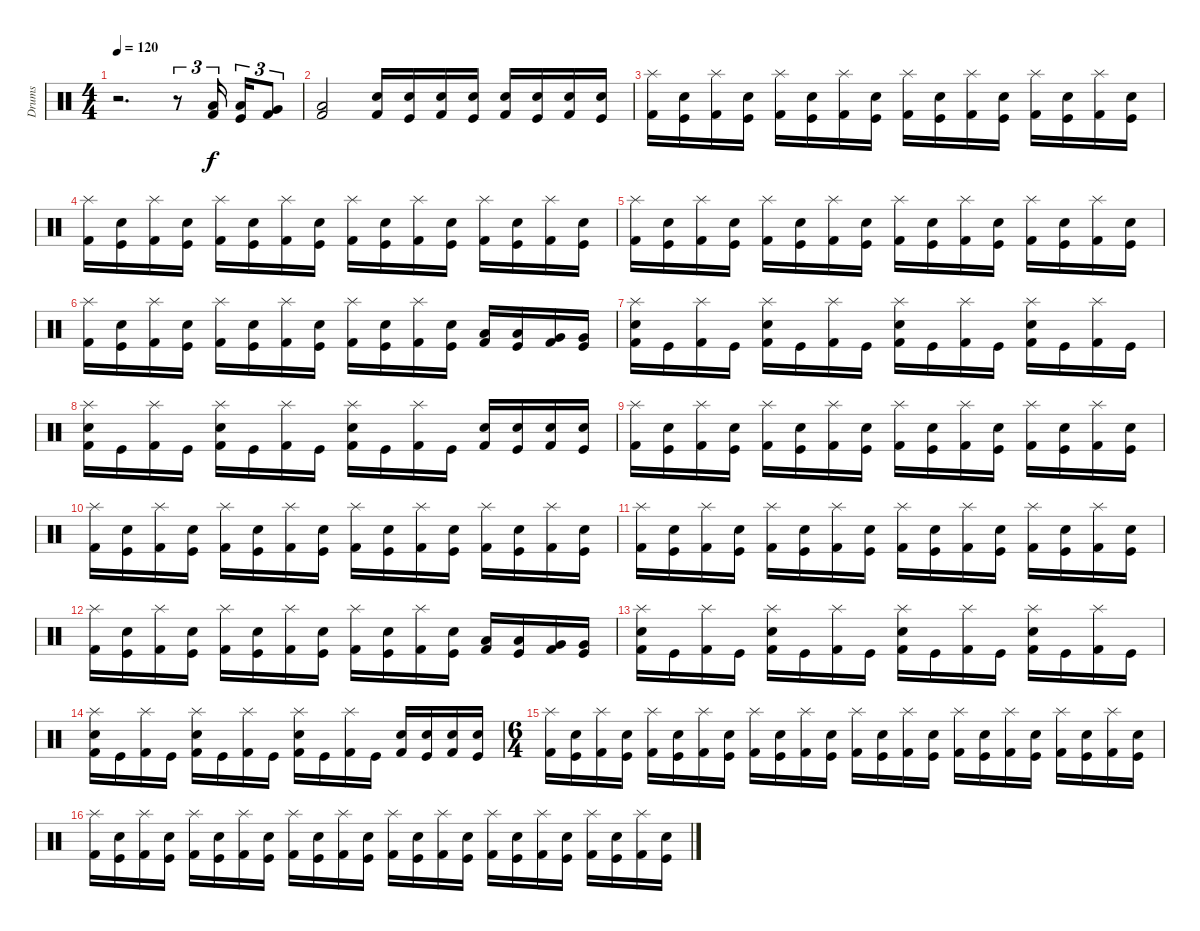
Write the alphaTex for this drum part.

\track ("Drums" "Drums") {instrument percussion}
\staff {score}
\articulation defaults
\ts (4 4)
\tempo 120
\clef neutral
\ks c
r.2{d dy f} r.8{tu (3 2)} ("Low Tom (hit)" "Kick (hit) 2").16{tu (3 2)} ("Low Tom (hit)" "Kick (hit)").16{tu (3 2)} ("Very Low Tom (hit)" "Kick (hit) 2").8{tu (3 2)} |
("Low Tom (hit)" "Kick (hit) 2").2 ("Snare (hit) 2" "Kick (hit) 2").16 ("Snare (hit) 2" "Kick (hit)").16 ("Snare (hit) 2" "Kick (hit) 2").16 ("Snare (hit) 2" "Kick (hit)").16 ("Snare (hit) 2" "Kick (hit) 2").16 ("Snare (hit) 2" "Kick (hit)").16 ("Snare (hit) 2" "Kick (hit) 2").16 ("Snare (hit) 2" "Kick (hit)").16 |
("Splash (hit)" "Kick (hit) 2").16 ("Snare (hit) 2" "Kick (hit)").16 ("Splash (hit)" "Kick (hit) 2").16 ("Snare (hit) 2" "Kick (hit)").16 ("Splash (hit)" "Kick (hit) 2").16 ("Snare (hit) 2" "Kick (hit)").16 ("Splash (hit)" "Kick (hit) 2").16 ("Snare (hit) 2" "Kick (hit)").16 ("Splash (hit)" "Kick (hit) 2").16 ("Snare (hit) 2" "Kick (hit)").16 ("Splash (hit)" "Kick (hit) 2").16 ("Snare (hit) 2" "Kick (hit)").16 ("Splash (hit)" "Kick (hit) 2").16 ("Snare (hit) 2" "Kick (hit)").16 ("Splash (hit)" "Kick (hit) 2").16 ("Snare (hit) 2" "Kick (hit)").16 |
("Splash (hit)" "Kick (hit) 2").16 ("Snare (hit) 2" "Kick (hit)").16 ("Splash (hit)" "Kick (hit) 2").16 ("Snare (hit) 2" "Kick (hit)").16 ("Splash (hit)" "Kick (hit) 2").16 ("Snare (hit) 2" "Kick (hit)").16 ("Splash (hit)" "Kick (hit) 2").16 ("Snare (hit) 2" "Kick (hit)").16 ("Splash (hit)" "Kick (hit) 2").16 ("Snare (hit) 2" "Kick (hit)").16 ("Splash (hit)" "Kick (hit) 2").16 ("Snare (hit) 2" "Kick (hit)").16 ("Splash (hit)" "Kick (hit) 2").16 ("Snare (hit) 2" "Kick (hit)").16 ("Splash (hit)" "Kick (hit) 2").16 ("Snare (hit) 2" "Kick (hit)").16 |
("Splash (hit)" "Kick (hit) 2").16 ("Snare (hit) 2" "Kick (hit)").16 ("Splash (hit)" "Kick (hit) 2").16 ("Snare (hit) 2" "Kick (hit)").16 ("Splash (hit)" "Kick (hit) 2").16 ("Snare (hit) 2" "Kick (hit)").16 ("Splash (hit)" "Kick (hit) 2").16 ("Snare (hit) 2" "Kick (hit)").16 ("Splash (hit)" "Kick (hit) 2").16 ("Snare (hit) 2" "Kick (hit)").16 ("Splash (hit)" "Kick (hit) 2").16 ("Snare (hit) 2" "Kick (hit)").16 ("Splash (hit)" "Kick (hit) 2").16 ("Snare (hit) 2" "Kick (hit)").16 ("Splash (hit)" "Kick (hit) 2").16 ("Snare (hit) 2" "Kick (hit)").16 |
("Splash (hit)" "Kick (hit) 2").16 ("Snare (hit) 2" "Kick (hit)").16 ("Splash (hit)" "Kick (hit) 2").16 ("Snare (hit) 2" "Kick (hit)").16 ("Splash (hit)" "Kick (hit) 2").16 ("Snare (hit) 2" "Kick (hit)").16 ("Splash (hit)" "Kick (hit) 2").16 ("Snare (hit) 2" "Kick (hit)").16 ("Splash (hit)" "Kick (hit) 2").16 ("Snare (hit) 2" "Kick (hit)").16 ("Splash (hit)" "Kick (hit) 2").16 ("Snare (hit) 2" "Kick (hit)").16 ("Low Tom (hit)" "Kick (hit) 2").16 ("Low Tom (hit)" "Kick (hit)").16 ("Very Low Tom (hit)" "Kick (hit) 2").16 ("Very Low Tom (hit)" "Kick (hit)").16 |
("Splash (hit)" "Snare (hit) 2" "Kick (hit) 2").16 "Kick (hit)".16 ("Splash (hit)" "Kick (hit) 2").16 "Kick (hit)".16 ("Splash (hit)" "Snare (hit) 2" "Kick (hit) 2").16 "Kick (hit)".16 ("Splash (hit)" "Kick (hit) 2").16 "Kick (hit)".16 ("Splash (hit)" "Snare (hit) 2" "Kick (hit) 2").16 "Kick (hit)".16 ("Splash (hit)" "Kick (hit) 2").16 "Kick (hit)".16 ("Splash (hit)" "Snare (hit) 2" "Kick (hit) 2").16 "Kick (hit)".16 ("Splash (hit)" "Kick (hit) 2").16 "Kick (hit)".16 |
("Splash (hit)" "Snare (hit) 2" "Kick (hit) 2").16 "Kick (hit)".16 ("Splash (hit)" "Kick (hit) 2").16 "Kick (hit)".16 ("Splash (hit)" "Snare (hit) 2" "Kick (hit) 2").16 "Kick (hit)".16 ("Splash (hit)" "Kick (hit) 2").16 "Kick (hit)".16 ("Splash (hit)" "Snare (hit) 2" "Kick (hit) 2").16 "Kick (hit)".16 ("Splash (hit)" "Kick (hit) 2").16 "Kick (hit)".16 ("Snare (hit) 2" "Kick (hit) 2").16 ("Snare (hit) 2" "Kick (hit)").16 ("Snare (hit) 2" "Kick (hit) 2").16 ("Snare (hit) 2" "Kick (hit)").16 |
("Splash (hit)" "Kick (hit) 2").16 ("Snare (hit) 2" "Kick (hit)").16 ("Splash (hit)" "Kick (hit) 2").16 ("Snare (hit) 2" "Kick (hit)").16 ("Splash (hit)" "Kick (hit) 2").16 ("Snare (hit) 2" "Kick (hit)").16 ("Splash (hit)" "Kick (hit) 2").16 ("Snare (hit) 2" "Kick (hit)").16 ("Splash (hit)" "Kick (hit) 2").16 ("Snare (hit) 2" "Kick (hit)").16 ("Splash (hit)" "Kick (hit) 2").16 ("Snare (hit) 2" "Kick (hit)").16 ("Splash (hit)" "Kick (hit) 2").16 ("Snare (hit) 2" "Kick (hit)").16 ("Splash (hit)" "Kick (hit) 2").16 ("Snare (hit) 2" "Kick (hit)").16 |
("Splash (hit)" "Kick (hit) 2").16 ("Snare (hit) 2" "Kick (hit)").16 ("Splash (hit)" "Kick (hit) 2").16 ("Snare (hit) 2" "Kick (hit)").16 ("Splash (hit)" "Kick (hit) 2").16 ("Snare (hit) 2" "Kick (hit)").16 ("Splash (hit)" "Kick (hit) 2").16 ("Snare (hit) 2" "Kick (hit)").16 ("Splash (hit)" "Kick (hit) 2").16 ("Snare (hit) 2" "Kick (hit)").16 ("Splash (hit)" "Kick (hit) 2").16 ("Snare (hit) 2" "Kick (hit)").16 ("Splash (hit)" "Kick (hit) 2").16 ("Snare (hit) 2" "Kick (hit)").16 ("Splash (hit)" "Kick (hit) 2").16 ("Snare (hit) 2" "Kick (hit)").16 |
("Splash (hit)" "Kick (hit) 2").16 ("Snare (hit) 2" "Kick (hit)").16 ("Splash (hit)" "Kick (hit) 2").16 ("Snare (hit) 2" "Kick (hit)").16 ("Splash (hit)" "Kick (hit) 2").16 ("Snare (hit) 2" "Kick (hit)").16 ("Splash (hit)" "Kick (hit) 2").16 ("Snare (hit) 2" "Kick (hit)").16 ("Splash (hit)" "Kick (hit) 2").16 ("Snare (hit) 2" "Kick (hit)").16 ("Splash (hit)" "Kick (hit) 2").16 ("Snare (hit) 2" "Kick (hit)").16 ("Splash (hit)" "Kick (hit) 2").16 ("Snare (hit) 2" "Kick (hit)").16 ("Splash (hit)" "Kick (hit) 2").16 ("Snare (hit) 2" "Kick (hit)").16 |
("Splash (hit)" "Kick (hit) 2").16 ("Snare (hit) 2" "Kick (hit)").16 ("Splash (hit)" "Kick (hit) 2").16 ("Snare (hit) 2" "Kick (hit)").16 ("Splash (hit)" "Kick (hit) 2").16 ("Snare (hit) 2" "Kick (hit)").16 ("Splash (hit)" "Kick (hit) 2").16 ("Snare (hit) 2" "Kick (hit)").16 ("Splash (hit)" "Kick (hit) 2").16 ("Snare (hit) 2" "Kick (hit)").16 ("Splash (hit)" "Kick (hit) 2").16 ("Snare (hit) 2" "Kick (hit)").16 ("Low Tom (hit)" "Kick (hit) 2").16 ("Low Tom (hit)" "Kick (hit)").16 ("Very Low Tom (hit)" "Kick (hit) 2").16 ("Very Low Tom (hit)" "Kick (hit)").16 |
("Splash (hit)" "Snare (hit) 2" "Kick (hit) 2").16 "Kick (hit)".16 ("Splash (hit)" "Kick (hit) 2").16 "Kick (hit)".16 ("Splash (hit)" "Snare (hit) 2" "Kick (hit) 2").16 "Kick (hit)".16 ("Splash (hit)" "Kick (hit) 2").16 "Kick (hit)".16 ("Splash (hit)" "Snare (hit) 2" "Kick (hit) 2").16 "Kick (hit)".16 ("Splash (hit)" "Kick (hit) 2").16 "Kick (hit)".16 ("Splash (hit)" "Snare (hit) 2" "Kick (hit) 2").16 "Kick (hit)".16 ("Splash (hit)" "Kick (hit) 2").16 "Kick (hit)".16 |
("Splash (hit)" "Snare (hit) 2" "Kick (hit) 2").16 "Kick (hit)".16 ("Splash (hit)" "Kick (hit) 2").16 "Kick (hit)".16 ("Splash (hit)" "Snare (hit) 2" "Kick (hit) 2").16 "Kick (hit)".16 ("Splash (hit)" "Kick (hit) 2").16 "Kick (hit)".16 ("Splash (hit)" "Snare (hit) 2" "Kick (hit) 2").16 "Kick (hit)".16 ("Splash (hit)" "Kick (hit) 2").16 "Kick (hit)".16 ("Snare (hit) 2" "Kick (hit) 2").16 ("Snare (hit) 2" "Kick (hit)").16 ("Snare (hit) 2" "Kick (hit) 2").16 ("Snare (hit) 2" "Kick (hit)").16 |
\ts (6 4)
("Splash (hit)" "Kick (hit) 2").16 ("Snare (hit) 2" "Kick (hit)").16 ("Splash (hit)" "Kick (hit) 2").16 ("Snare (hit) 2" "Kick (hit)").16 ("Splash (hit)" "Kick (hit) 2").16 ("Snare (hit) 2" "Kick (hit)").16 ("Splash (hit)" "Kick (hit) 2").16 ("Snare (hit) 2" "Kick (hit)").16 ("Splash (hit)" "Kick (hit) 2").16 ("Snare (hit) 2" "Kick (hit)").16 ("Splash (hit)" "Kick (hit) 2").16 ("Snare (hit) 2" "Kick (hit)").16 ("Splash (hit)" "Kick (hit) 2").16 ("Snare (hit) 2" "Kick (hit)").16 ("Splash (hit)" "Kick (hit) 2").16 ("Snare (hit) 2" "Kick (hit)").16 ("Splash (hit)" "Kick (hit) 2").16 ("Snare (hit) 2" "Kick (hit)").16 ("Splash (hit)" "Kick (hit) 2").16 ("Snare (hit) 2" "Kick (hit)").16 ("Splash (hit)" "Kick (hit) 2").16 ("Snare (hit) 2" "Kick (hit)").16 ("Splash (hit)" "Kick (hit) 2").16 ("Snare (hit) 2" "Kick (hit)").16 |
("Splash (hit)" "Kick (hit) 2").16 ("Snare (hit) 2" "Kick (hit)").16 ("Splash (hit)" "Kick (hit) 2").16 ("Snare (hit) 2" "Kick (hit)").16 ("Splash (hit)" "Kick (hit) 2").16 ("Snare (hit) 2" "Kick (hit)").16 ("Splash (hit)" "Kick (hit) 2").16 ("Snare (hit) 2" "Kick (hit)").16 ("Splash (hit)" "Kick (hit) 2").16 ("Snare (hit) 2" "Kick (hit)").16 ("Splash (hit)" "Kick (hit) 2").16 ("Snare (hit) 2" "Kick (hit)").16 ("Splash (hit)" "Kick (hit) 2").16 ("Snare (hit) 2" "Kick (hit)").16 ("Splash (hit)" "Kick (hit) 2").16 ("Snare (hit) 2" "Kick (hit)").16 ("Splash (hit)" "Kick (hit) 2").16 ("Snare (hit) 2" "Kick (hit)").16 ("Splash (hit)" "Kick (hit) 2").16 ("Snare (hit) 2" "Kick (hit)").16 ("Splash (hit)" "Kick (hit) 2").16 ("Snare (hit) 2" "Kick (hit)").16 ("Splash (hit)" "Kick (hit) 2").16 ("Snare (hit) 2" "Kick (hit)").16
